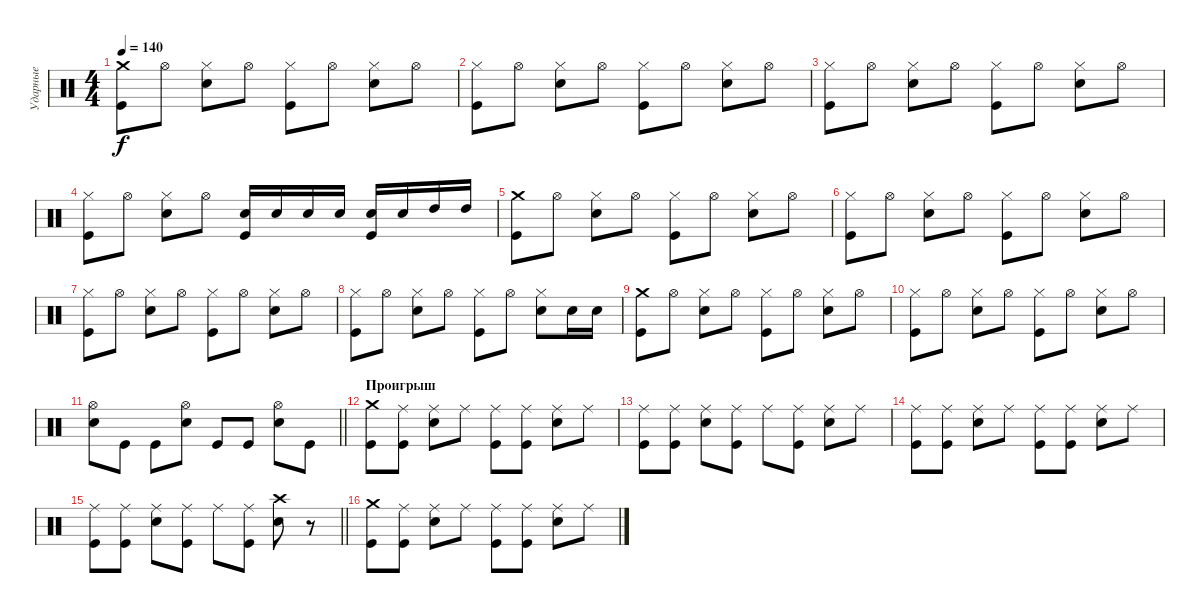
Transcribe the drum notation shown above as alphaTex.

\track ("Ударные" "Ударные") {instrument percussion}
\staff {score}
\articulation defaults
\ts (4 4)
\tempo 140
\clef neutral
\ks c
("Crash medium (hit)" "Kick (hit)").8{dy f} "Hi-Hat (open)".8 ("Hi-Hat (closed)" "Electric Snare (hit)").8 "Hi-Hat (open)".8 ("Hi-Hat (closed)" "Kick (hit)").8 "Hi-Hat (open)".8 ("Hi-Hat (closed)" "Electric Snare (hit)").8 "Hi-Hat (open)".8 |
("Hi-Hat (closed)" "Kick (hit)").8 "Hi-Hat (open)".8 ("Hi-Hat (closed)" "Electric Snare (hit)").8 "Hi-Hat (open)".8 ("Hi-Hat (closed)" "Kick (hit)").8 "Hi-Hat (open)".8 ("Hi-Hat (closed)" "Electric Snare (hit)").8 "Hi-Hat (open)".8 |
("Hi-Hat (closed)" "Kick (hit)").8 "Hi-Hat (open)".8 ("Hi-Hat (closed)" "Electric Snare (hit)").8 "Hi-Hat (open)".8 ("Hi-Hat (closed)" "Kick (hit)").8 "Hi-Hat (open)".8 ("Hi-Hat (closed)" "Electric Snare (hit)").8 "Hi-Hat (open)".8 |
("Hi-Hat (closed)" "Kick (hit)").8 "Hi-Hat (open)".8 ("Hi-Hat (closed)" "Electric Snare (hit)").8 "Hi-Hat (open)".8 ("Electric Snare (hit)" "Kick (hit)").16 "Electric Snare (hit)".16 "Electric Snare (hit)".16 "Electric Snare (hit)".16 ("Electric Snare (hit)" "Kick (hit)").16 "Electric Snare (hit)".16 "High Tom (hit)".16 "High Tom (hit)".16 |
("Crash medium (hit)" "Kick (hit)").8 "Hi-Hat (open)".8 ("Hi-Hat (closed)" "Electric Snare (hit)").8 "Hi-Hat (open)".8 ("Hi-Hat (closed)" "Kick (hit)").8 "Hi-Hat (open)".8 ("Hi-Hat (closed)" "Electric Snare (hit)").8 "Hi-Hat (open)".8 |
("Hi-Hat (closed)" "Kick (hit)").8 "Hi-Hat (open)".8 ("Hi-Hat (closed)" "Electric Snare (hit)").8 "Hi-Hat (open)".8 ("Hi-Hat (closed)" "Kick (hit)").8 "Hi-Hat (open)".8 ("Hi-Hat (closed)" "Electric Snare (hit)").8 "Hi-Hat (open)".8 |
("Hi-Hat (closed)" "Kick (hit)").8 "Hi-Hat (open)".8 ("Hi-Hat (closed)" "Electric Snare (hit)").8 "Hi-Hat (open)".8 ("Hi-Hat (closed)" "Kick (hit)").8 "Hi-Hat (open)".8 ("Hi-Hat (closed)" "Electric Snare (hit)").8 "Hi-Hat (open)".8 |
("Hi-Hat (closed)" "Kick (hit)").8 "Hi-Hat (open)".8 ("Hi-Hat (closed)" "Electric Snare (hit)").8 "Hi-Hat (open)".8 ("Hi-Hat (closed)" "Kick (hit)").8 "Hi-Hat (open)".8 ("Hi-Hat (closed)" "Electric Snare (hit)").8 "Electric Snare (hit)".16 "Electric Snare (hit)".16 |
("Crash medium (hit)" "Kick (hit)").8 "Hi-Hat (open)".8 ("Hi-Hat (closed)" "Electric Snare (hit)").8 "Hi-Hat (open)".8 ("Hi-Hat (closed)" "Kick (hit)").8 "Hi-Hat (open)".8 ("Hi-Hat (closed)" "Electric Snare (hit)").8 "Hi-Hat (open)".8 |
("Hi-Hat (closed)" "Kick (hit)").8 "Hi-Hat (open)".8 ("Hi-Hat (closed)" "Electric Snare (hit)").8 "Hi-Hat (open)".8 ("Hi-Hat (closed)" "Kick (hit)").8 "Hi-Hat (open)".8 ("Hi-Hat (closed)" "Electric Snare (hit)").8 "Hi-Hat (open)".8 |
\barLineRight lightlight
("Hi-Hat (open)" "Electric Snare (hit)").8 "Kick (hit)".8 "Kick (hit)".8 ("Hi-Hat (open)" "Electric Snare (hit)").8 "Kick (hit)".8 "Kick (hit)".8 ("Hi-Hat (open)" "Electric Snare (hit)").8 "Kick (hit)".8 |
\section ("" "Проигрыш")
("Crash medium (hit)" "Kick (hit)").8 ("Ride (middle)" "Kick (hit)").8 ("Ride (middle)" "Electric Snare (hit)").8 "Ride (middle)".8 ("Ride (middle)" "Kick (hit)").8 ("Ride (middle)" "Kick (hit)").8 ("Ride (middle)" "Electric Snare (hit)").8 "Ride (middle)".8 |
("Ride (middle)" "Kick (hit)").8 ("Ride (middle)" "Kick (hit)").8 ("Ride (middle)" "Electric Snare (hit)").8 ("Ride (middle)" "Kick (hit)").8 "Ride (middle)".8 ("Ride (middle)" "Kick (hit)").8 ("Ride (middle)" "Electric Snare (hit)").8 "Ride (middle)".8 |
("Ride (middle)" "Kick (hit)").8 ("Ride (middle)" "Kick (hit)").8 ("Ride (middle)" "Electric Snare (hit)").8 "Ride (middle)".8 ("Ride (middle)" "Kick (hit)").8 ("Ride (middle)" "Kick (hit)").8 ("Ride (middle)" "Electric Snare (hit)").8 "Ride (middle)".8 |
\barLineRight lightlight
("Ride (middle)" "Kick (hit)").8 ("Ride (middle)" "Kick (hit)").8 ("Ride (middle)" "Electric Snare (hit)").8 ("Ride (middle)" "Kick (hit)").8 "Ride (middle)".8 ("Ride (middle)" "Kick (hit)").8 ("Crash high (hit)" "Electric Snare (hit)").8 r.8 |
("Crash medium (hit)" "Kick (hit)").8 ("Ride (middle)" "Kick (hit)").8 ("Ride (middle)" "Electric Snare (hit)").8 "Ride (middle)".8 ("Ride (middle)" "Kick (hit)").8 ("Ride (middle)" "Kick (hit)").8 ("Ride (middle)" "Electric Snare (hit)").8 "Ride (middle)".8
